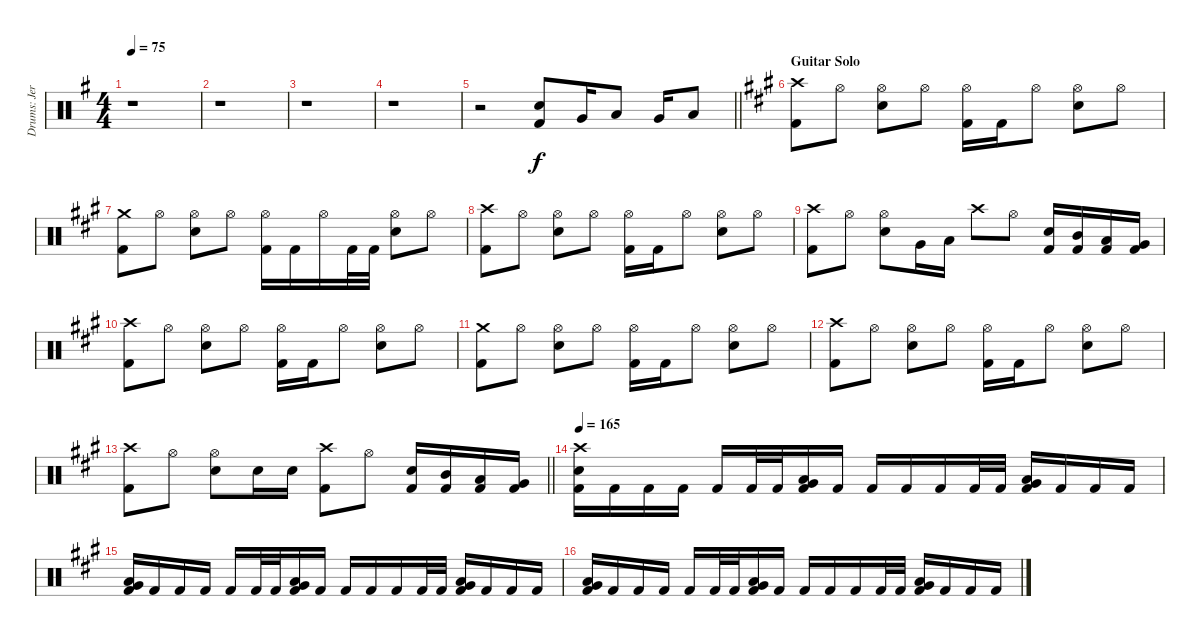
\track ("Drums: Jere Luokkamäki" "Drums: Jer") {instrument percussion}
\staff {score}
\articulation defaults
\ts (4 4)
\tempo 75
\clef neutral
\ks eminor
r.1{dy f} |
r.1 |
r.1 |
r.1 |
\barLineRight lightlight
r.2 ("Electric Snare (hit)" "Kick (hit) 2").8 "Very Low Tom (hit)".16 "Low Tom (hit)".8 "Very Low Tom (hit)".16 "Low Tom (hit)".8 |
\section ("" "Guitar Solo")
\ks f#minor
("Crash high (hit)" "Kick (hit) 2").8 "Hi-Hat (open)".8 ("Hi-Hat (open)" "Electric Snare (hit)").8 "Hi-Hat (open)".8 ("Hi-Hat (open)" "Kick (hit) 2").16 "Kick (hit) 2".16 "Hi-Hat (open)".8 ("Hi-Hat (open)" "Electric Snare (hit)").8 "Hi-Hat (open)".8 |
("Crash medium (hit)" "Kick (hit) 2").8 "Hi-Hat (open)".8 ("Hi-Hat (open)" "Electric Snare (hit)").8 "Hi-Hat (open)".8 ("Hi-Hat (open)" "Kick (hit) 2").16 "Kick (hit) 2".16 "Hi-Hat (open)".16 "Kick (hit) 2".32 "Kick (hit) 2".32 ("Hi-Hat (open)" "Electric Snare (hit)").8 "Hi-Hat (open)".8 |
("Crash high (hit)" "Kick (hit) 2").8 "Hi-Hat (open)".8 ("Hi-Hat (open)" "Electric Snare (hit)").8 "Hi-Hat (open)".8 ("Hi-Hat (open)" "Kick (hit) 2").16 "Kick (hit) 2".16 "Hi-Hat (open)".8 ("Hi-Hat (open)" "Electric Snare (hit)").8 "Hi-Hat (open)".8 |
("Crash high (hit)" "Kick (hit) 2").8 "Hi-Hat (open)".8 ("Hi-Hat (open)" "Electric Snare (hit)").8 "Very Low Tom (hit)".16 "Low Tom (hit)".16 "Crash high (hit)".8 "Hi-Hat (open)".8 ("Electric Snare (hit)" "Kick (hit) 2").16 ("Mid Tom (hit)" "Kick (hit) 2").16 ("Low Tom (hit)" "Kick (hit) 2").16 ("Very Low Tom (hit)" "Kick (hit) 2").16 |
("Crash high (hit)" "Kick (hit) 2").8 "Hi-Hat (open)".8 ("Hi-Hat (open)" "Electric Snare (hit)").8 "Hi-Hat (open)".8 ("Hi-Hat (open)" "Kick (hit) 2").16 "Kick (hit) 2".16 "Hi-Hat (open)".8 ("Hi-Hat (open)" "Electric Snare (hit)").8 "Hi-Hat (open)".8 |
("Crash medium (hit)" "Kick (hit) 2").8 "Hi-Hat (open)".8 ("Hi-Hat (open)" "Electric Snare (hit)").8 "Hi-Hat (open)".8 ("Hi-Hat (open)" "Kick (hit) 2").16 "Kick (hit) 2".16 "Hi-Hat (open)".8 ("Hi-Hat (open)" "Electric Snare (hit)").8 "Hi-Hat (open)".8 |
("Crash high (hit)" "Kick (hit) 2").8 "Hi-Hat (open)".8 ("Hi-Hat (open)" "Electric Snare (hit)").8 "Hi-Hat (open)".8 ("Hi-Hat (open)" "Kick (hit) 2").16 "Kick (hit) 2".16 "Hi-Hat (open)".8 ("Hi-Hat (open)" "Electric Snare (hit)").8 "Hi-Hat (open)".8 |
\barLineRight lightlight
("Crash high (hit)" "Kick (hit) 2").8 "Hi-Hat (open)".8 ("Hi-Hat (open)" "Electric Snare (hit)").8 "Electric Snare (hit)".16 "Electric Snare (hit)".16 ("Crash high (hit)" "Kick (hit) 2").8 "Hi-Hat (open)".8 ("Electric Snare (hit)" "Kick (hit) 2").16 ("Mid Tom (hit)" "Kick (hit) 2").16 ("Low Tom (hit)" "Kick (hit) 2").16 ("Very Low Tom (hit)" "Kick (hit) 2").16 |
\tempo 165
("Crash high (hit)" "Electric Snare (hit)" "Kick (hit) 2").16 "Kick (hit) 2".16 "Kick (hit) 2".16 "Kick (hit) 2".16 "Kick (hit) 2".16 "Kick (hit) 2".32 "Kick (hit) 2".32 ("Low Tom (hit)" "Very Low Tom (hit)" "Kick (hit) 2").16 "Kick (hit) 2".16 "Kick (hit) 2".16 "Kick (hit) 2".16 "Kick (hit) 2".16 "Kick (hit) 2".32 "Kick (hit) 2".32 ("Low Tom (hit)" "Very Low Tom (hit)" "Kick (hit) 2").16 "Kick (hit) 2".16 "Kick (hit) 2".16 "Kick (hit) 2".16 |
("Low Tom (hit)" "Very Low Tom (hit)" "Kick (hit) 2").16 "Kick (hit) 2".16 "Kick (hit) 2".16 "Kick (hit) 2".16 "Kick (hit) 2".16 "Kick (hit) 2".32 "Kick (hit) 2".32 ("Low Tom (hit)" "Very Low Tom (hit)" "Kick (hit) 2").16 "Kick (hit) 2".16 "Kick (hit) 2".16 "Kick (hit) 2".16 "Kick (hit) 2".16 "Kick (hit) 2".32 "Kick (hit) 2".32 ("Low Tom (hit)" "Very Low Tom (hit)" "Kick (hit) 2").16 "Kick (hit) 2".16 "Kick (hit) 2".16 "Kick (hit) 2".16 |
("Low Tom (hit)" "Very Low Tom (hit)" "Kick (hit) 2").16 "Kick (hit) 2".16 "Kick (hit) 2".16 "Kick (hit) 2".16 "Kick (hit) 2".16 "Kick (hit) 2".32 "Kick (hit) 2".32 ("Low Tom (hit)" "Very Low Tom (hit)" "Kick (hit) 2").16 "Kick (hit) 2".16 "Kick (hit) 2".16 "Kick (hit) 2".16 "Kick (hit) 2".16 "Kick (hit) 2".32 "Kick (hit) 2".32 ("Low Tom (hit)" "Very Low Tom (hit)" "Kick (hit) 2").16 "Kick (hit) 2".16 "Kick (hit) 2".16 "Kick (hit) 2".16
